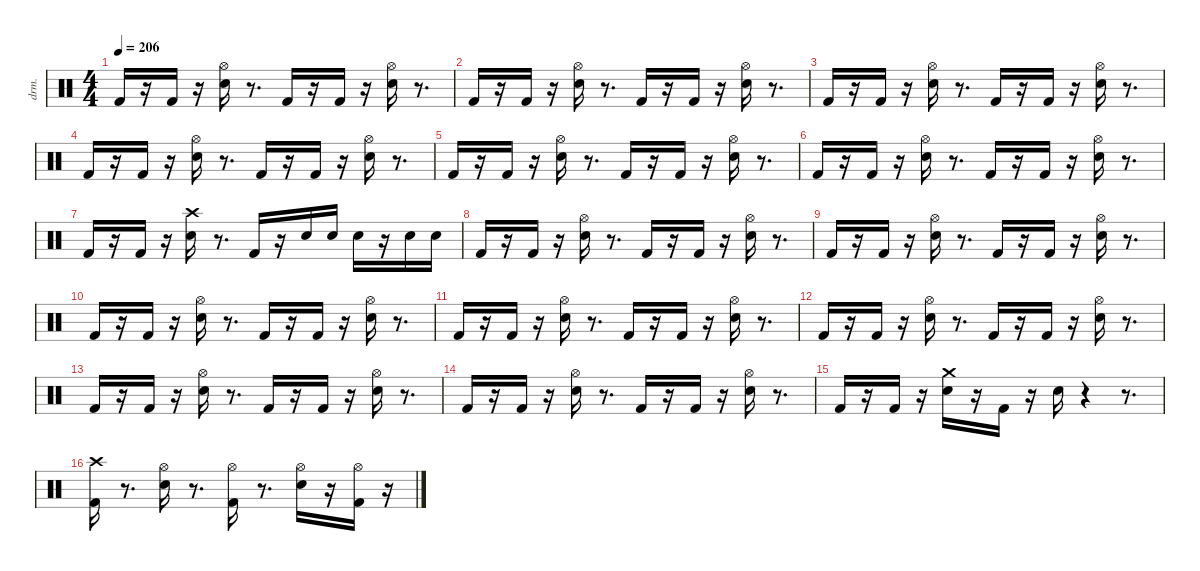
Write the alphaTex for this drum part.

\defaultSystemsLayout 4
\hideDynamics
\bracketExtendMode nobrackets
\otherSystemsTrackNameOrientation horizontal
\track ("EZdrummer 3" "drm.") {instrument percussion}
\staff {score}
\articulation defaults
\ts (4 4)
\tempo 206
\clef neutral
\ks aminor "Kick (hit) 2".16{dy mf beam Up}
r.16{beam Up} "Kick (hit) 2".16{dy ff beam Up} r.16{beam Up} ("Snare (hit) 2" "Hi-Hat (open)"{acc #}).16{beam Down} r.8{d beam Down} "Kick (hit) 2".16{dy mf beam Up} r.16{beam Up} "Kick (hit) 2".16{dy ff beam Up} r.16{beam Up} ("Snare (hit) 2" "Hi-Hat (open)"{acc #}).16{beam Down} r.8{d beam Down} |
"Kick (hit) 2".16{dy mf beam Up} r.16{beam Up} "Kick (hit) 2".16{dy ff beam Up} r.16{beam Up} ("Snare (hit) 2" "Hi-Hat (open)"{acc #}).16{beam Down} r.8{d beam Down} "Kick (hit) 2".16{dy mf beam Up} r.16{beam Up} "Kick (hit) 2".16{dy ff beam Up} r.16{beam Up} ("Snare (hit) 2" "Hi-Hat (open)"{acc #}).16{beam Down} r.8{d beam Down} |
"Kick (hit) 2".16{dy mf beam Up} r.16{beam Up} "Kick (hit) 2".16{dy ff beam Up} r.16{beam Up} ("Snare (hit) 2" "Hi-Hat (open)"{acc #}).16{beam Down} r.8{d beam Down} "Kick (hit) 2".16{dy mf beam Up} r.16{beam Up} "Kick (hit) 2".16{dy ff beam Up} r.16{beam Up} ("Snare (hit) 2" "Hi-Hat (open)"{acc #}).16{beam Down} r.8{d beam Down} |
"Kick (hit) 2".16{dy mf beam Up} r.16{beam Up} "Kick (hit) 2".16{dy ff beam Up} r.16{beam Up} ("Snare (hit) 2" "Hi-Hat (open)"{acc #}).16{beam Down} r.8{d beam Down} "Kick (hit) 2".16{dy mf beam Up} r.16{beam Up} "Kick (hit) 2".16{dy ff beam Up} r.16{beam Up} ("Snare (hit) 2" "Hi-Hat (open)"{acc #}).16{beam Down} r.8{d beam Down} |
"Kick (hit) 2".16{dy mf beam Up} r.16{beam Up} "Kick (hit) 2".16{dy ff beam Up} r.16{beam Up} ("Snare (hit) 2" "Hi-Hat (open)"{acc #}).16{beam Down} r.8{d beam Down} "Kick (hit) 2".16{dy mf beam Up} r.16{beam Up} "Kick (hit) 2".16{dy ff beam Up} r.16{beam Up} ("Snare (hit) 2" "Hi-Hat (open)"{acc #}).16{beam Down} r.8{d beam Down} |
"Kick (hit) 2".16{dy mf beam Up} r.16{beam Up} "Kick (hit) 2".16{dy ff beam Up} r.16{beam Up} ("Snare (hit) 2" "Hi-Hat (open)"{acc #}).16{beam Down} r.8{d beam Down} "Kick (hit) 2".16{dy mf beam Up} r.16{beam Up} "Kick (hit) 2".16{dy ff beam Up} r.16{beam Up} ("Snare (hit) 2" "Hi-Hat (open)"{acc #}).16{beam Down} r.8{d beam Down} |
"Kick (hit) 2".16{dy mf beam Up} r.16{beam Up} "Kick (hit) 2".16{dy ff beam Up} r.16{beam Up} ("Snare (hit) 2" "Crash high (hit)"{acc #}).16{beam Down} r.8{d beam Down} "Kick (hit) 2".16{dy mf beam Up} r.16{beam Up} "Snare (hit) 2".16{beam Down} "Snare (hit) 2".16{dy p beam Down} "Snare (hit) 2".16{dy ff beam Down} r.16{beam Down} "Snare (hit) 2".16{dy mf beam Down} "Snare (hit) 2".16{dy p beam Down} |
"Kick (hit) 2".16{dy mf beam Up} r.16{beam Up} "Kick (hit) 2".16{dy ff beam Up} r.16{beam Up} ("Snare (hit) 2" "Hi-Hat (open)"{acc #}).16{beam Down} r.8{d beam Down} "Kick (hit) 2".16{dy mf beam Up} r.16{beam Up} "Kick (hit) 2".16{dy ff beam Up} r.16{beam Up} ("Snare (hit) 2" "Hi-Hat (open)"{acc #}).16{beam Down} r.8{d beam Down} |
"Kick (hit) 2".16{dy mf beam Up} r.16{beam Up} "Kick (hit) 2".16{dy ff beam Up} r.16{beam Up} ("Snare (hit) 2" "Hi-Hat (open)"{acc #}).16{beam Down} r.8{d beam Down} "Kick (hit) 2".16{dy mf beam Up} r.16{beam Up} "Kick (hit) 2".16{dy ff beam Up} r.16{beam Up} ("Snare (hit) 2" "Hi-Hat (open)"{acc #}).16{beam Down} r.8{d beam Down} |
"Kick (hit) 2".16{dy mf beam Up} r.16{beam Up} "Kick (hit) 2".16{dy ff beam Up} r.16{beam Up} ("Snare (hit) 2" "Hi-Hat (open)"{acc #}).16{beam Down} r.8{d beam Down} "Kick (hit) 2".16{dy mf beam Up} r.16{beam Up} "Kick (hit) 2".16{dy ff beam Up} r.16{beam Up} ("Snare (hit) 2" "Hi-Hat (open)"{acc #}).16{beam Down} r.8{d beam Down} |
"Kick (hit) 2".16{dy mf beam Up} r.16{beam Up} "Kick (hit) 2".16{dy ff beam Up} r.16{beam Up} ("Snare (hit) 2" "Hi-Hat (open)"{acc #}).16{beam Down} r.8{d beam Down} "Kick (hit) 2".16{dy mf beam Up} r.16{beam Up} "Kick (hit) 2".16{dy ff beam Up} r.16{beam Up} ("Snare (hit) 2" "Hi-Hat (open)"{acc #}).16{beam Down} r.8{d beam Down} |
"Kick (hit) 2".16{dy mf beam Up} r.16{beam Up} "Kick (hit) 2".16{dy ff beam Up} r.16{beam Up} ("Snare (hit) 2" "Hi-Hat (open)"{acc #}).16{beam Down} r.8{d beam Down} "Kick (hit) 2".16{dy mf beam Up} r.16{beam Up} "Kick (hit) 2".16{dy ff beam Up} r.16{beam Up} ("Snare (hit) 2" "Hi-Hat (open)"{acc #}).16{beam Down} r.8{d beam Down} |
"Kick (hit) 2".16{dy mf beam Up} r.16{beam Up} "Kick (hit) 2".16{dy ff beam Up} r.16{beam Up} ("Snare (hit) 2" "Hi-Hat (open)"{acc #}).16{beam Down} r.8{d beam Down} "Kick (hit) 2".16{dy mf beam Up} r.16{beam Up} "Kick (hit) 2".16{dy ff beam Up} r.16{beam Up} ("Snare (hit) 2" "Hi-Hat (open)"{acc #}).16{beam Down} r.8{d beam Down} |
"Kick (hit) 2".16{dy mf beam Up} r.16{beam Up} "Kick (hit) 2".16{dy ff beam Up} r.16{beam Up} ("Snare (hit) 2" "Hi-Hat (open)"{acc #}).16{beam Down} r.8{d beam Down} "Kick (hit) 2".16{dy mf beam Up} r.16{beam Up} "Kick (hit) 2".16{dy ff beam Up} r.16{beam Up} ("Snare (hit) 2" "Hi-Hat (open)"{acc #}).16{beam Down} r.8{d beam Down} |
"Kick (hit) 2".16{dy mf beam Up} r.16{beam Up} "Kick (hit) 2".16{dy ff beam Up} r.16{beam Up} ("Snare (hit) 2" "Crash medium (hit)").16{beam Down} r.16{beam Down} "Kick (hit) 2".16{beam Up} r.16{beam Up} "Snare (hit) 2".16{beam Down} r.4{beam Down} r.8{d beam Down} |
("Kick (hit) 2" "Crash high (hit)"{acc #}).16{dy fff beam Down} r.8{d beam Down} ("Snare (hit) 2" "Hi-Hat (open)"{acc #}).16{dy ff beam Down} r.8{d beam Down} ("Kick (hit) 2" "Hi-Hat (open)"{acc #}).16{beam Down} r.8{d beam Down} ("Snare (hit) 2" "Hi-Hat (open)"{acc #}).16{dy f beam Down} r.16{beam Down} ("Kick (hit) 2" "Hi-Hat (open)"{acc #}).16{dy fff beam Down} r.16{beam Down}
